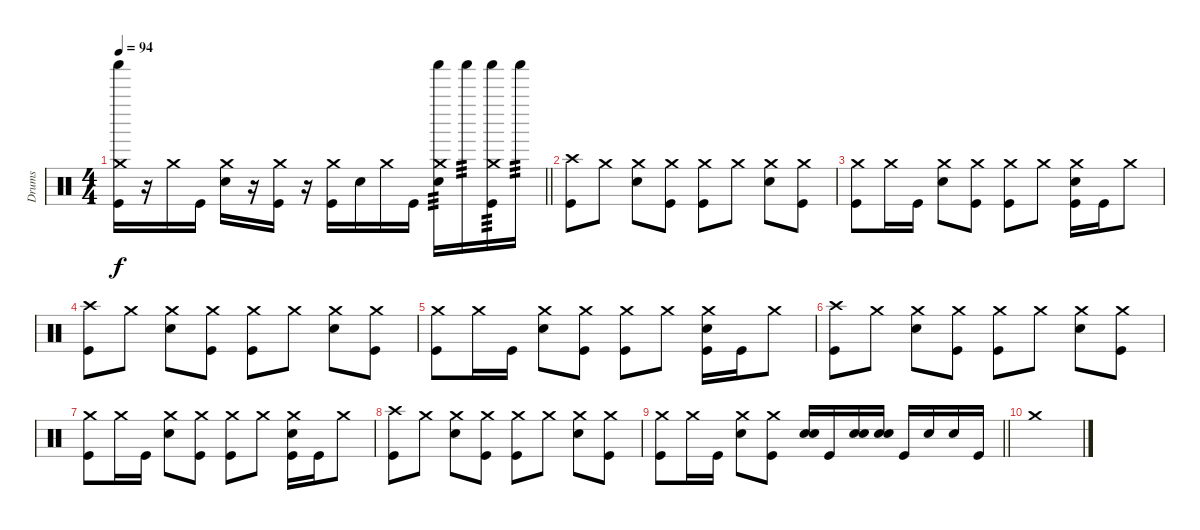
\track ("Drums" "Drums") {instrument percussion}
\staff {score}
\articulation defaults
\ts (4 4)
\tempo 94
\clef neutral
\barLineRight lightlight
\ks c
("Shaker (hit)" "Crash medium (hit)" "Kick (hit)").16{dy f} r.16 "Crash medium (hit)".16 "Kick (hit)".16 ("Crash medium (hit)" "Electric Snare (hit)").16 r.16 ("Crash medium (hit)" "Kick (hit)").16 r.16 ("Crash medium (hit)" "Kick (hit)").16 "Electric Snare (hit)".16 "Crash medium (hit)".16 "Kick (hit)".16 ("Shaker (hit)" "Crash medium (hit)" "Electric Snare (hit)").16{tp 3} "Shaker (hit)".16{tp 3} ("Shaker (hit)" "Crash medium (hit)" "Kick (hit)").16{tp 3} "Shaker (hit)".16{tp 3} |
\section ("" "")
("Crash high (hit)" "Kick (hit)").8 "Crash medium (hit)".8 ("Crash medium (hit)" "Electric Snare (hit)").8 ("Crash medium (hit)" "Kick (hit)").8 ("Crash medium (hit)" "Kick (hit)").8 "Crash medium (hit)".8 ("Crash medium (hit)" "Electric Snare (hit)").8 ("Crash medium (hit)" "Kick (hit)").8 |
("Crash medium (hit)" "Kick (hit)").8 "Crash medium (hit)".16 "Kick (hit)".16 ("Crash medium (hit)" "Electric Snare (hit)").8 ("Crash medium (hit)" "Kick (hit)").8 ("Crash medium (hit)" "Kick (hit)").8 "Crash medium (hit)".8 ("Crash medium (hit)" "Electric Snare (hit)" "Kick (hit)").16 "Kick (hit)".16 "Crash medium (hit)".8 |
("Crash high (hit)" "Kick (hit)").8 "Crash medium (hit)".8 ("Crash medium (hit)" "Electric Snare (hit)").8 ("Crash medium (hit)" "Kick (hit)").8 ("Crash medium (hit)" "Kick (hit)").8 "Crash medium (hit)".8 ("Crash medium (hit)" "Electric Snare (hit)").8 ("Crash medium (hit)" "Kick (hit)").8 |
("Crash medium (hit)" "Kick (hit)").8 "Crash medium (hit)".16 "Kick (hit)".16 ("Crash medium (hit)" "Electric Snare (hit)").8 ("Crash medium (hit)" "Kick (hit)").8 ("Crash medium (hit)" "Kick (hit)").8 "Crash medium (hit)".8 ("Crash medium (hit)" "Electric Snare (hit)" "Kick (hit)").16 "Kick (hit)".16 "Crash medium (hit)".8 |
("Crash high (hit)" "Kick (hit)").8 "Crash medium (hit)".8 ("Crash medium (hit)" "Electric Snare (hit)").8 ("Crash medium (hit)" "Kick (hit)").8 ("Crash medium (hit)" "Kick (hit)").8 "Crash medium (hit)".8 ("Crash medium (hit)" "Electric Snare (hit)").8 ("Crash medium (hit)" "Kick (hit)").8 |
("Crash medium (hit)" "Kick (hit)").8 "Crash medium (hit)".16 "Kick (hit)".16 ("Crash medium (hit)" "Electric Snare (hit)").8 ("Crash medium (hit)" "Kick (hit)").8 ("Crash medium (hit)" "Kick (hit)").8 "Crash medium (hit)".8 ("Crash medium (hit)" "Electric Snare (hit)" "Kick (hit)").16 "Kick (hit)".16 "Crash medium (hit)".8 |
("Crash high (hit)" "Kick (hit)").8 "Crash medium (hit)".8 ("Crash medium (hit)" "Electric Snare (hit)").8 ("Crash medium (hit)" "Kick (hit)").8 ("Crash medium (hit)" "Kick (hit)").8 "Crash medium (hit)".8 ("Crash medium (hit)" "Electric Snare (hit)").8 ("Crash medium (hit)" "Kick (hit)").8 |
\barLineRight lightlight
("Crash medium (hit)" "Kick (hit)").8 "Crash medium (hit)".16 "Kick (hit)".16 ("Crash medium (hit)" "Electric Snare (hit)").8 ("Crash medium (hit)" "Kick (hit)").8 ("Electric Snare (hit)" "Electric Snare (hit)").16{bd 120} "Kick (hit)".16 ("Electric Snare (hit)" "Electric Snare (hit)").16{bd 120} ("Electric Snare (hit)" "Electric Snare (hit)").16 "Kick (hit)".16 "Electric Snare (hit)".16 "Electric Snare (hit)".16 "Kick (hit)".16 |
"Crash medium (hit)".1
